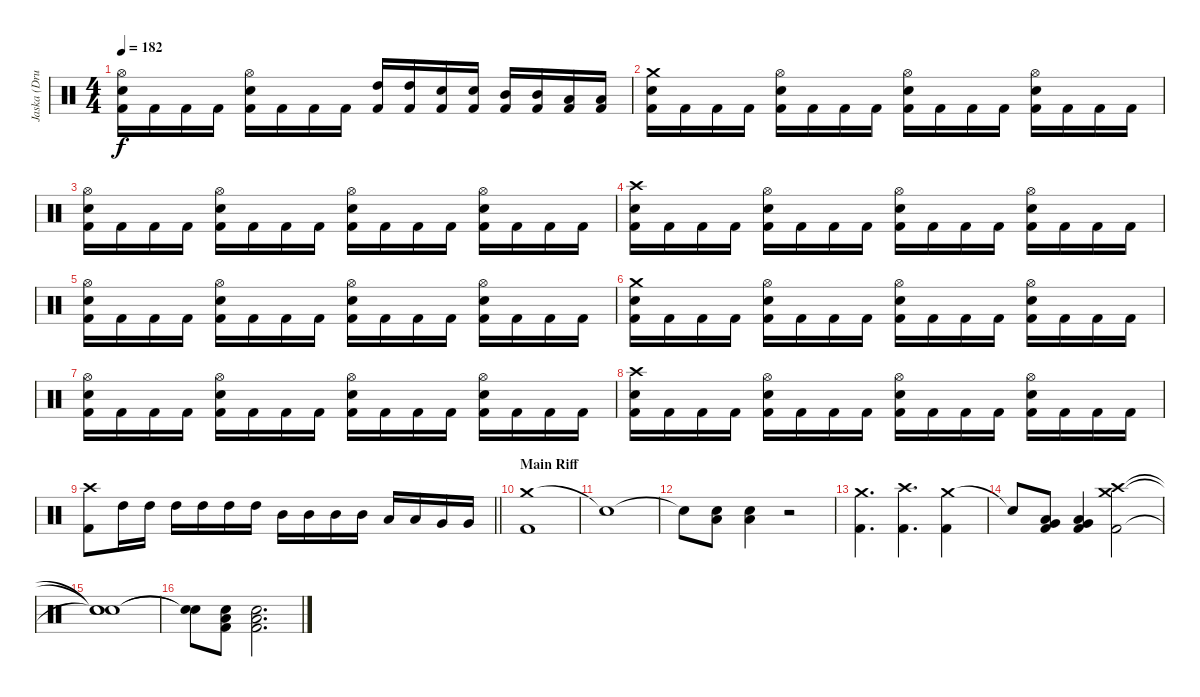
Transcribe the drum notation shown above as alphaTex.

\track ("Jaska (Drums)" "Jaska (Dru") {instrument percussion}
\staff {score}
\articulation defaults
\ts (4 4)
\tempo 182
\clef neutral
\ks c
("Hi-Hat (open)" "Electric Snare (hit)" "Kick (hit) 2").16{dy f} "Kick (hit) 2".16 "Kick (hit) 2".16 "Kick (hit) 2".16 ("Hi-Hat (open)" "Electric Snare (hit)" "Kick (hit) 2").16 "Kick (hit) 2".16 "Kick (hit) 2".16 "Kick (hit) 2".16 ("High Tom (hit)" "Kick (hit) 2").16 ("High Tom (hit)" "Kick (hit) 2").16 ("Electric Snare (hit)" "Kick (hit) 2").16 ("Electric Snare (hit)" "Kick (hit) 2").16 ("Mid Tom (hit)" "Kick (hit) 2").16 ("Mid Tom (hit)" "Kick (hit) 2").16 ("Low Tom (hit)" "Kick (hit) 2").16 ("Low Tom (hit)" "Kick (hit) 2").16 |
("Crash medium (hit)" "Electric Snare (hit)" "Kick (hit) 2").16 "Kick (hit) 2".16 "Kick (hit) 2".16 "Kick (hit) 2".16 ("Hi-Hat (open)" "Electric Snare (hit)" "Kick (hit) 2").16 "Kick (hit) 2".16 "Kick (hit) 2".16 "Kick (hit) 2".16 ("Hi-Hat (open)" "Electric Snare (hit)" "Kick (hit) 2").16 "Kick (hit) 2".16 "Kick (hit) 2".16 "Kick (hit) 2".16 ("Hi-Hat (open)" "Electric Snare (hit)" "Kick (hit) 2").16 "Kick (hit) 2".16 "Kick (hit) 2".16 "Kick (hit) 2".16 |
("Hi-Hat (open)" "Electric Snare (hit)" "Kick (hit) 2").16 "Kick (hit) 2".16 "Kick (hit) 2".16 "Kick (hit) 2".16 ("Hi-Hat (open)" "Electric Snare (hit)" "Kick (hit) 2").16 "Kick (hit) 2".16 "Kick (hit) 2".16 "Kick (hit) 2".16 ("Hi-Hat (open)" "Electric Snare (hit)" "Kick (hit) 2").16 "Kick (hit) 2".16 "Kick (hit) 2".16 "Kick (hit) 2".16 ("Hi-Hat (open)" "Electric Snare (hit)" "Kick (hit) 2").16 "Kick (hit) 2".16 "Kick (hit) 2".16 "Kick (hit) 2".16 |
("Crash high (hit)" "Electric Snare (hit)" "Kick (hit) 2").16 "Kick (hit) 2".16 "Kick (hit) 2".16 "Kick (hit) 2".16 ("Hi-Hat (open)" "Electric Snare (hit)" "Kick (hit) 2").16 "Kick (hit) 2".16 "Kick (hit) 2".16 "Kick (hit) 2".16 ("Hi-Hat (open)" "Electric Snare (hit)" "Kick (hit) 2").16 "Kick (hit) 2".16 "Kick (hit) 2".16 "Kick (hit) 2".16 ("Hi-Hat (open)" "Electric Snare (hit)" "Kick (hit) 2").16 "Kick (hit) 2".16 "Kick (hit) 2".16 "Kick (hit) 2".16 |
("Hi-Hat (open)" "Electric Snare (hit)" "Kick (hit) 2").16 "Kick (hit) 2".16 "Kick (hit) 2".16 "Kick (hit) 2".16 ("Hi-Hat (open)" "Electric Snare (hit)" "Kick (hit) 2").16 "Kick (hit) 2".16 "Kick (hit) 2".16 "Kick (hit) 2".16 ("Hi-Hat (open)" "Electric Snare (hit)" "Kick (hit) 2").16 "Kick (hit) 2".16 "Kick (hit) 2".16 "Kick (hit) 2".16 ("Hi-Hat (open)" "Electric Snare (hit)" "Kick (hit) 2").16 "Kick (hit) 2".16 "Kick (hit) 2".16 "Kick (hit) 2".16 |
("Crash medium (hit)" "Electric Snare (hit)" "Kick (hit) 2").16 "Kick (hit) 2".16 "Kick (hit) 2".16 "Kick (hit) 2".16 ("Hi-Hat (open)" "Electric Snare (hit)" "Kick (hit) 2").16 "Kick (hit) 2".16 "Kick (hit) 2".16 "Kick (hit) 2".16 ("Hi-Hat (open)" "Electric Snare (hit)" "Kick (hit) 2").16 "Kick (hit) 2".16 "Kick (hit) 2".16 "Kick (hit) 2".16 ("Hi-Hat (open)" "Electric Snare (hit)" "Kick (hit) 2").16 "Kick (hit) 2".16 "Kick (hit) 2".16 "Kick (hit) 2".16 |
("Hi-Hat (open)" "Electric Snare (hit)" "Kick (hit) 2").16 "Kick (hit) 2".16 "Kick (hit) 2".16 "Kick (hit) 2".16 ("Hi-Hat (open)" "Electric Snare (hit)" "Kick (hit) 2").16 "Kick (hit) 2".16 "Kick (hit) 2".16 "Kick (hit) 2".16 ("Hi-Hat (open)" "Electric Snare (hit)" "Kick (hit) 2").16 "Kick (hit) 2".16 "Kick (hit) 2".16 "Kick (hit) 2".16 ("Hi-Hat (open)" "Electric Snare (hit)" "Kick (hit) 2").16 "Kick (hit) 2".16 "Kick (hit) 2".16 "Kick (hit) 2".16 |
("Crash high (hit)" "Electric Snare (hit)" "Kick (hit) 2").16 "Kick (hit) 2".16 "Kick (hit) 2".16 "Kick (hit) 2".16 ("Hi-Hat (open)" "Electric Snare (hit)" "Kick (hit) 2").16 "Kick (hit) 2".16 "Kick (hit) 2".16 "Kick (hit) 2".16 ("Hi-Hat (open)" "Electric Snare (hit)" "Kick (hit) 2").16 "Kick (hit) 2".16 "Kick (hit) 2".16 "Kick (hit) 2".16 ("Hi-Hat (open)" "Electric Snare (hit)" "Kick (hit) 2").16 "Kick (hit) 2".16 "Kick (hit) 2".16 "Kick (hit) 2".16 |
\barLineRight lightlight
("Crash high (hit)" "Kick (hit) 2").8 "High Tom (hit)".16 "High Tom (hit)".16 "High Tom (hit)".16 "High Tom (hit)".16 "High Tom (hit)".16 "High Tom (hit)".16 "Mid Tom (hit)".16 "Mid Tom (hit)".16 "Mid Tom (hit)".16 "Mid Tom (hit)".16 "Low Tom (hit)".16 "Low Tom (hit)".16 "Very Low Tom (hit)".16 "Very Low Tom (hit)".16 |
\section ("" "Main Riff")
("Crash medium (hit)" "Kick (hit) 2").1{volume 16 balance 8} |
"Snare (hit)"{t}.1 |
"Snare (hit)"{t}.8 ("Low Floor Tom (hit)" "Electric Snare (hit)").8 ("Low Floor Tom (hit)" "Electric Snare (hit)").4 r.2 |
("Crash medium (hit)" "Kick (hit) 2").4{d} ("Crash high (hit)" "Kick (hit) 2").4{d} ("Crash medium (hit)" "Kick (hit) 2").4 |
"Snare (hit)"{t}.8 ("Very Low Tom (hit)" "Low Floor Tom (hit)" "Kick (hit) 2").8 ("Very Low Tom (hit)" "Low Floor Tom (hit)" "Kick (hit) 2").4 ("Crash medium (hit)" "Crash high (hit)" "Kick (hit) 2").2 |
("Snare (hit)"{t} "Snare (hit)"{t} "Snare (hit)"{t}).1 |
("Snare (hit)"{t} "Snare (hit)"{t}).8 ("Low Floor Tom (hit)" "Electric Snare (hit)" "Kick (hit) 2").8 ("Low Floor Tom (hit)" "Electric Snare (hit)" "Kick (hit) 2").2{d}
